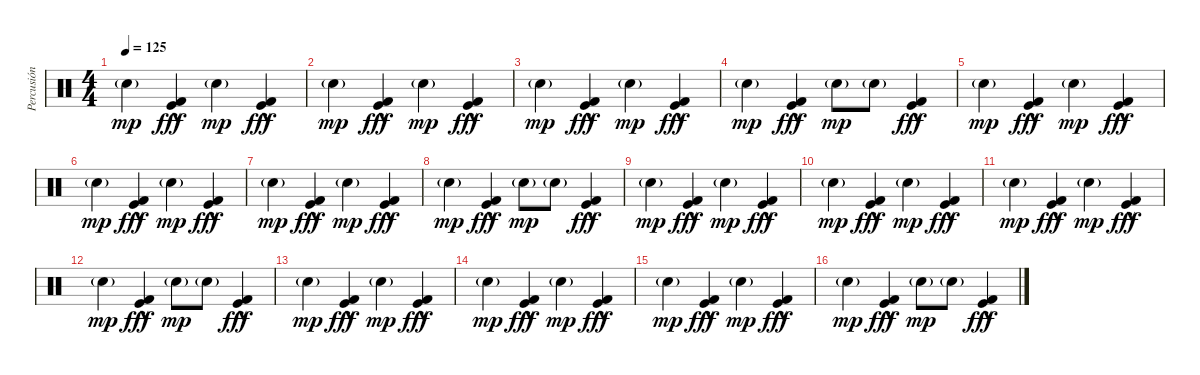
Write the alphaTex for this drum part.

\track ("Percusión" "Percusión") {instrument percussion}
\staff {score}
\articulation defaults
\ts (4 4)
\tempo 125
\clef neutral
\ks c "Snare (hit) 2"{g}.4{dy mp}
("Kick (hit)"{hac} "Kick (hit) 2"{hac}).4{dy fff} "Snare (hit) 2"{g}.4{dy mp} ("Kick (hit) 2"{hac} "Kick (hit)"{hac}).4{dy fff} |
"Snare (hit) 2"{g}.4{dy mp} ("Kick (hit) 2"{hac} "Kick (hit)"{hac}).4{dy fff} "Snare (hit) 2"{g}.4{dy mp} ("Kick (hit) 2"{hac} "Kick (hit)"{hac}).4{dy fff} |
"Snare (hit) 2"{g}.4{dy mp} ("Kick (hit) 2"{hac} "Kick (hit)"{hac}).4{dy fff} "Snare (hit) 2"{g}.4{dy mp} ("Kick (hit) 2"{hac} "Kick (hit)"{hac}).4{dy fff} |
"Snare (hit) 2"{g}.4{dy mp} ("Kick (hit) 2"{hac} "Kick (hit)"{hac}).4{dy fff} "Snare (hit) 2"{g}.8{dy mp} "Snare (hit) 2"{g}.8 ("Kick (hit) 2"{hac} "Kick (hit)"{hac}).4{dy fff} |
"Snare (hit) 2"{g}.4{dy mp} ("Kick (hit)"{hac} "Kick (hit) 2"{hac}).4{dy fff} "Snare (hit) 2"{g}.4{dy mp} ("Kick (hit) 2"{hac} "Kick (hit)"{hac}).4{dy fff} |
"Snare (hit) 2"{g}.4{dy mp} ("Kick (hit) 2"{hac} "Kick (hit)"{hac}).4{dy fff} "Snare (hit) 2"{g}.4{dy mp} ("Kick (hit) 2"{hac} "Kick (hit)"{hac}).4{dy fff} |
"Snare (hit) 2"{g}.4{dy mp} ("Kick (hit) 2"{hac} "Kick (hit)"{hac}).4{dy fff} "Snare (hit) 2"{g}.4{dy mp} ("Kick (hit) 2"{hac} "Kick (hit)"{hac}).4{dy fff} |
"Snare (hit) 2"{g}.4{dy mp} ("Kick (hit) 2"{hac} "Kick (hit)"{hac}).4{dy fff} "Snare (hit) 2"{g}.8{dy mp} "Snare (hit) 2"{g}.8 ("Kick (hit) 2"{hac} "Kick (hit)"{hac}).4{dy fff} |
"Snare (hit) 2"{g}.4{dy mp} ("Kick (hit)"{hac} "Kick (hit) 2"{hac}).4{dy fff} "Snare (hit) 2"{g}.4{dy mp} ("Kick (hit) 2"{hac} "Kick (hit)"{hac}).4{dy fff} |
"Snare (hit) 2"{g}.4{dy mp} ("Kick (hit) 2"{hac} "Kick (hit)"{hac}).4{dy fff} "Snare (hit) 2"{g}.4{dy mp} ("Kick (hit) 2"{hac} "Kick (hit)"{hac}).4{dy fff} |
"Snare (hit) 2"{g}.4{dy mp} ("Kick (hit) 2"{hac} "Kick (hit)"{hac}).4{dy fff} "Snare (hit) 2"{g}.4{dy mp} ("Kick (hit) 2"{hac} "Kick (hit)"{hac}).4{dy fff} |
"Snare (hit) 2"{g}.4{dy mp} ("Kick (hit) 2"{hac} "Kick (hit)"{hac}).4{dy fff} "Snare (hit) 2"{g}.8{dy mp} "Snare (hit) 2"{g}.8 ("Kick (hit) 2"{hac} "Kick (hit)"{hac}).4{dy fff} |
"Snare (hit) 2"{g}.4{dy mp} ("Kick (hit)"{hac} "Kick (hit) 2"{hac}).4{dy fff} "Snare (hit) 2"{g}.4{dy mp} ("Kick (hit) 2"{hac} "Kick (hit)"{hac}).4{dy fff} |
"Snare (hit) 2"{g}.4{dy mp} ("Kick (hit) 2"{hac} "Kick (hit)"{hac}).4{dy fff} "Snare (hit) 2"{g}.4{dy mp} ("Kick (hit) 2"{hac} "Kick (hit)"{hac}).4{dy fff} |
"Snare (hit) 2"{g}.4{dy mp} ("Kick (hit) 2"{hac} "Kick (hit)"{hac}).4{dy fff} "Snare (hit) 2"{g}.4{dy mp} ("Kick (hit) 2"{hac} "Kick (hit)"{hac}).4{dy fff} |
"Snare (hit) 2"{g}.4{dy mp} ("Kick (hit) 2"{hac} "Kick (hit)"{hac}).4{dy fff} "Snare (hit) 2"{g}.8{dy mp} "Snare (hit) 2"{g}.8 ("Kick (hit) 2"{hac} "Kick (hit)"{hac}).4{dy fff}
